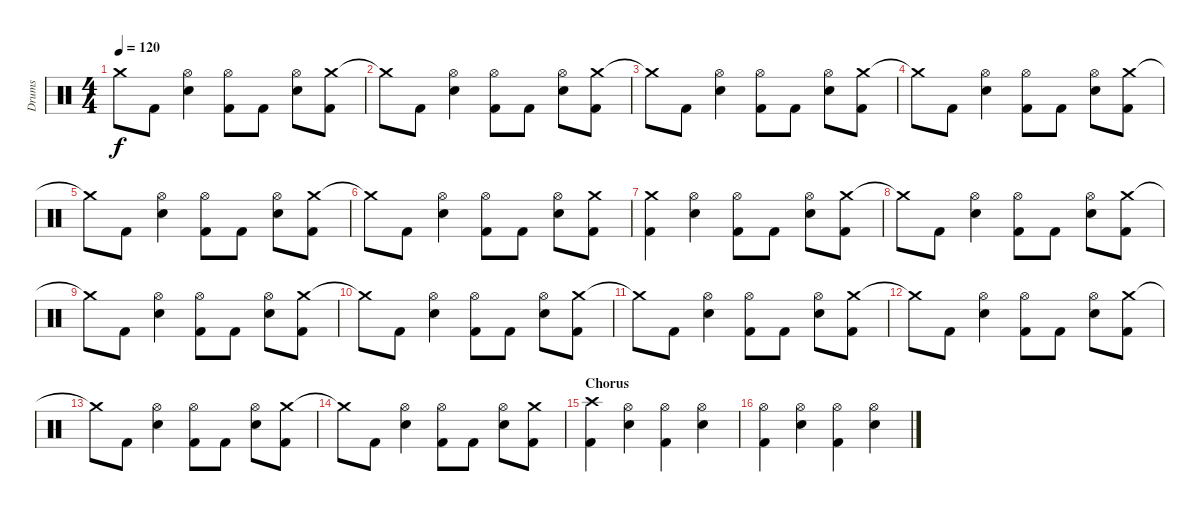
\track ("Drums" "Drums") {instrument percussion}
\staff {score}
\articulation defaults
\ts (4 4)
\tempo 120
\clef neutral
\ks c "Crash medium (hit)"{t}.8{dy f} "Kick (hit) 2".8
("Hi-Hat (open)" "Electric Snare (hit)").4 ("Hi-Hat (open)" "Kick (hit) 2").8 "Kick (hit) 2".8 ("Hi-Hat (open)" "Electric Snare (hit)").8 ("Crash medium (hit)" "Kick (hit) 2").8 |
"Crash medium (hit)"{t}.8 "Kick (hit) 2".8 ("Hi-Hat (open)" "Electric Snare (hit)").4 ("Hi-Hat (open)" "Kick (hit) 2").8 "Kick (hit) 2".8 ("Hi-Hat (open)" "Electric Snare (hit)").8 ("Crash medium (hit)" "Kick (hit) 2").8 |
"Crash medium (hit)"{t}.8 "Kick (hit) 2".8 ("Hi-Hat (open)" "Electric Snare (hit)").4 ("Hi-Hat (open)" "Kick (hit) 2").8 "Kick (hit) 2".8 ("Hi-Hat (open)" "Electric Snare (hit)").8 ("Crash medium (hit)" "Kick (hit) 2").8 |
"Crash medium (hit)"{t}.8 "Kick (hit) 2".8 ("Hi-Hat (open)" "Electric Snare (hit)").4 ("Hi-Hat (open)" "Kick (hit) 2").8 "Kick (hit) 2".8 ("Hi-Hat (open)" "Electric Snare (hit)").8 ("Crash medium (hit)" "Kick (hit) 2").8 |
"Crash medium (hit)"{t}.8 "Kick (hit) 2".8 ("Hi-Hat (open)" "Electric Snare (hit)").4 ("Hi-Hat (open)" "Kick (hit) 2").8 "Kick (hit) 2".8 ("Hi-Hat (open)" "Electric Snare (hit)").8 ("Crash medium (hit)" "Kick (hit) 2").8 |
"Crash medium (hit)"{t}.8 "Kick (hit) 2".8 ("Hi-Hat (open)" "Electric Snare (hit)").4 ("Hi-Hat (open)" "Kick (hit) 2").8 "Kick (hit) 2".8 ("Hi-Hat (open)" "Electric Snare (hit)").8 ("Crash medium (hit)" "Kick (hit) 2").8 |
("Crash medium (hit)" "Kick (hit) 2").4 ("Hi-Hat (open)" "Electric Snare (hit)").4 ("Hi-Hat (open)" "Kick (hit) 2").8 "Kick (hit) 2".8 ("Hi-Hat (open)" "Electric Snare (hit)").8 ("Crash medium (hit)" "Kick (hit) 2").8 |
"Crash medium (hit)"{t}.8 "Kick (hit) 2".8 ("Hi-Hat (open)" "Electric Snare (hit)").4 ("Hi-Hat (open)" "Kick (hit) 2").8 "Kick (hit) 2".8 ("Hi-Hat (open)" "Electric Snare (hit)").8 ("Crash medium (hit)" "Kick (hit) 2").8 |
"Crash medium (hit)"{t}.8 "Kick (hit) 2".8 ("Hi-Hat (open)" "Electric Snare (hit)").4 ("Hi-Hat (open)" "Kick (hit) 2").8 "Kick (hit) 2".8 ("Hi-Hat (open)" "Electric Snare (hit)").8 ("Crash medium (hit)" "Kick (hit) 2").8 |
"Crash medium (hit)"{t}.8 "Kick (hit) 2".8 ("Hi-Hat (open)" "Electric Snare (hit)").4 ("Hi-Hat (open)" "Kick (hit) 2").8 "Kick (hit) 2".8 ("Hi-Hat (open)" "Electric Snare (hit)").8 ("Crash medium (hit)" "Kick (hit) 2").8 |
"Crash medium (hit)"{t}.8 "Kick (hit) 2".8 ("Hi-Hat (open)" "Electric Snare (hit)").4 ("Hi-Hat (open)" "Kick (hit) 2").8 "Kick (hit) 2".8 ("Hi-Hat (open)" "Electric Snare (hit)").8 ("Crash medium (hit)" "Kick (hit) 2").8 |
"Crash medium (hit)"{t}.8 "Kick (hit) 2".8 ("Hi-Hat (open)" "Electric Snare (hit)").4 ("Hi-Hat (open)" "Kick (hit) 2").8 "Kick (hit) 2".8 ("Hi-Hat (open)" "Electric Snare (hit)").8 ("Crash medium (hit)" "Kick (hit) 2").8 |
"Crash medium (hit)"{t}.8 "Kick (hit) 2".8 ("Hi-Hat (open)" "Electric Snare (hit)").4 ("Hi-Hat (open)" "Kick (hit) 2").8 "Kick (hit) 2".8 ("Hi-Hat (open)" "Electric Snare (hit)").8 ("Crash medium (hit)" "Kick (hit) 2").8 |
"Crash medium (hit)"{t}.8 "Kick (hit) 2".8 ("Hi-Hat (open)" "Electric Snare (hit)").4 ("Hi-Hat (open)" "Kick (hit) 2").8 "Kick (hit) 2".8 ("Hi-Hat (open)" "Electric Snare (hit)").8 ("Crash medium (hit)" "Kick (hit) 2").8 |
\section ("" "Chorus")
("Crash high (hit)" "Kick (hit) 2").4 ("Hi-Hat (open)" "Electric Snare (hit)").4 ("Hi-Hat (open)" "Kick (hit) 2").4 ("Hi-Hat (open)" "Electric Snare (hit)").4 |
("Hi-Hat (open)" "Kick (hit) 2").4 ("Hi-Hat (open)" "Electric Snare (hit)").4 ("Hi-Hat (open)" "Kick (hit) 2").4 ("Hi-Hat (open)" "Electric Snare (hit)").4
